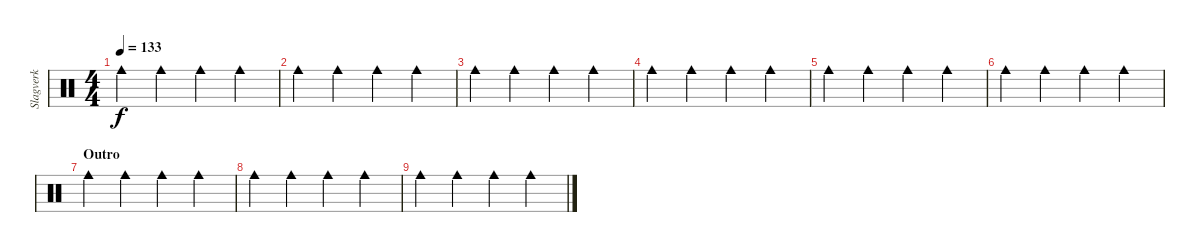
\track ("Slagverk" "Slagverk") {instrument percussion}
\staff {score}
\articulation defaults
\ts (4 4)
\tempo 133
\clef neutral
\ks c "Cowbell medium (hit)".4{dy f} "Cowbell medium (hit)".4 "Cowbell medium (hit)".4 "Cowbell medium (hit)".4
|
"Cowbell medium (hit)".4 "Cowbell medium (hit)".4 "Cowbell medium (hit)".4 "Cowbell medium (hit)".4 |
"Cowbell medium (hit)".4 "Cowbell medium (hit)".4 "Cowbell medium (hit)".4 "Cowbell medium (hit)".4 |
"Cowbell medium (hit)".4 "Cowbell medium (hit)".4 "Cowbell medium (hit)".4 "Cowbell medium (hit)".4 |
"Cowbell medium (hit)".4 "Cowbell medium (hit)".4 "Cowbell medium (hit)".4 "Cowbell medium (hit)".4 |
"Cowbell medium (hit)".4 "Cowbell medium (hit)".4 "Cowbell medium (hit)".4 "Cowbell medium (hit)".4 |
\section ("" "Outro")
"Cowbell medium (hit)".4 "Cowbell medium (hit)".4 "Cowbell medium (hit)".4 "Cowbell medium (hit)".4 |
"Cowbell medium (hit)".4 "Cowbell medium (hit)".4 "Cowbell medium (hit)".4 "Cowbell medium (hit)".4 |
"Cowbell medium (hit)".4 "Cowbell medium (hit)".4 "Cowbell medium (hit)".4 "Cowbell medium (hit)".4
